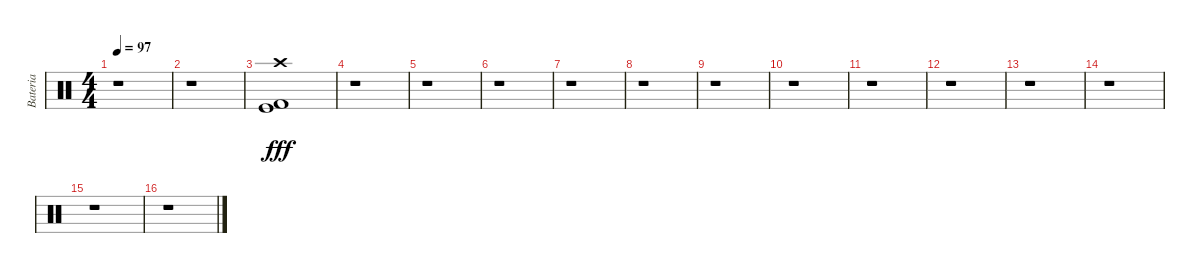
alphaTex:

\track ("Bateria" "Bateria") {instrument percussion}
\staff {score}
\articulation defaults
\ts (4 4)
\tempo 97
\clef neutral
\ks c
r.1{dy f} |
r.1 |
("Crash high (hit)" "Kick (hit) 2" "Kick (hit)").1{dy fff} |
r.1 |
r.1 |
r.1 |
r.1 |
r.1 |
r.1 |
r.1 |
r.1 |
r.1 |
r.1 |
r.1 |
r.1 |
r.1
